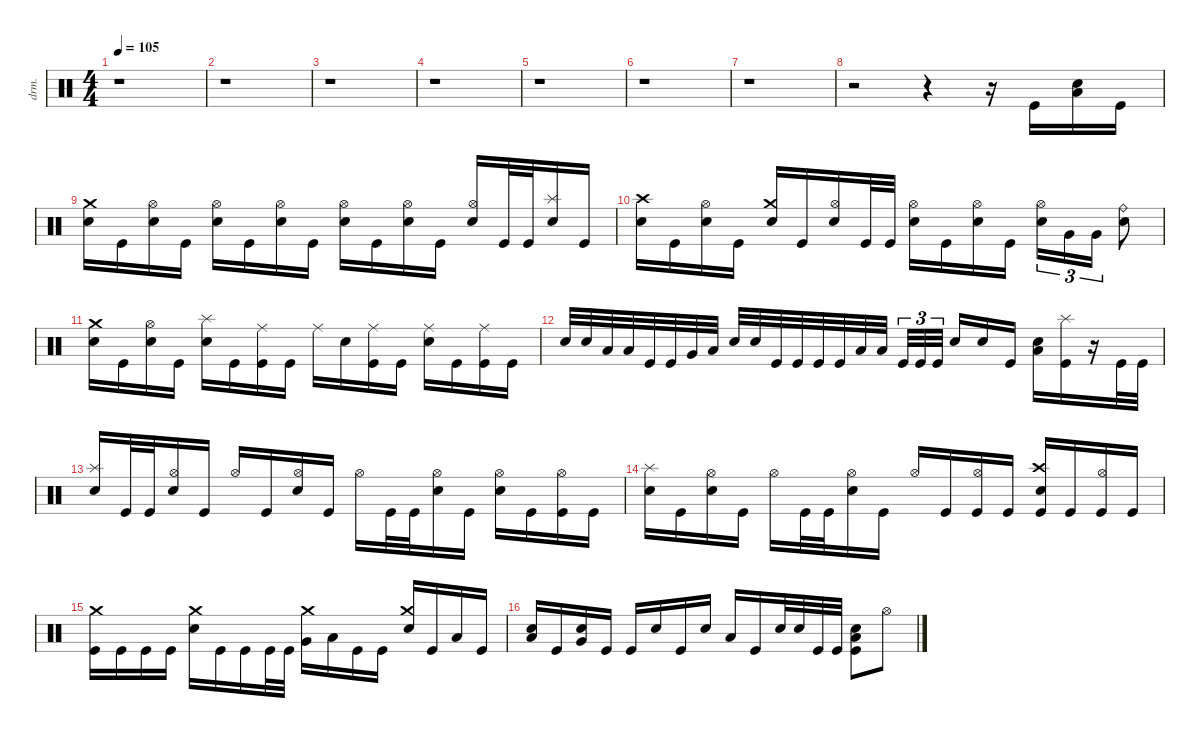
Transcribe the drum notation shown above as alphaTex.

\defaultSystemsLayout 4
\hideDynamics
\bracketExtendMode nobrackets
\otherSystemsTrackNameOrientation horizontal
\track ("Drumkit" "drm.") {instrument percussion}
\staff {score}
\articulation defaults
\ts (4 4)
\tempo 105
\clef neutral
\ks c
r.1{dy mf beam Down} |
r.1{beam Down} |
r.1{beam Down} |
r.1{beam Down} |
r.1{beam Down} |
r.1{beam Down} |
r.1{beam Down} |
r.2{beam Down} r.4{beam Down} r.16{beam Down} "Kick (hit)".16{beam Up} ("Electric Snare (hit)" "Low Floor Tom (hit)").16{beam Up} "Kick (hit)".16{beam Up} |
("Crash medium (hit)" "Electric Snare (hit)").16{beam Down} "Kick (hit)".16{beam Down} ("Hi-Hat (open)" "Electric Snare (hit)").16{beam Down} "Kick (hit)".16{beam Down} ("Hi-Hat (open)" "Electric Snare (hit)").16{beam Down} "Kick (hit)".16{beam Down} ("Hi-Hat (open)" "Electric Snare (hit)").16{beam Down} "Kick (hit)".16{beam Down} ("Hi-Hat (open)" "Electric Snare (hit)").16{beam Down} "Kick (hit)".16{beam Down} ("Hi-Hat (open)" "Electric Snare (hit)").16{beam Down} "Kick (hit)".16{beam Down} ("Electric Snare (hit)" "Hi-Hat (open)").16{beam Up} "Kick (hit)".32{beam Up} "Kick (hit)".32{beam Up} ("Splash (hit)" "Electric Snare (hit)").16{beam Up} "Kick (hit)".16{beam Up} |
("Crash high (hit)" "Electric Snare (hit)").16{beam Down} "Kick (hit)".16{beam Down} ("Hi-Hat (open)" "Electric Snare (hit)").16{beam Down} "Kick (hit)".16{beam Down} ("Crash medium (hit)" "Electric Snare (hit)").16{beam Up} "Kick (hit)".16{beam Up} ("Hi-Hat (open)" "Electric Snare (hit)").16{beam Up} "Kick (hit)".32{beam Up} "Kick (hit)".32{beam Up} ("Hi-Hat (open)" "Electric Snare (hit)").16{beam Down} "Kick (hit)".16{beam Down} ("Hi-Hat (open)" "Electric Snare (hit)").16{beam Down} "Kick (hit)".16{beam Down} ("Hi-Hat (open)" "Electric Snare (hit)").16{tu (3 2) beam Down} "Very Low Tom (hit)".16{tu (3 2) beam Down} "Very Low Tom (hit)".16{tu (3 2) beam Down} ("Ride (bell)" "Electric Snare (hit)").8{beam Down} |
("Crash medium (hit)" "Electric Snare (hit)").16{beam Down} "Kick (hit)".16{beam Down} ("Hi-Hat (open)" "Electric Snare (hit)").16{beam Down} "Kick (hit)".16{beam Down} ("Splash (hit)" "Electric Snare (hit)").16{beam Down} "Kick (hit)".16{beam Down} ("Kick (hit)" "Ride (middle)").16{beam Down} "Kick (hit)".16{beam Down} "Ride (middle)".16{beam Down} "Electric Snare (hit)".16{beam Down} ("Kick (hit)" "Ride (middle)").16{beam Down} "Kick (hit)".16{beam Down} ("Electric Snare (hit)" "Ride (middle)").16{beam Down} "Kick (hit)".16{beam Down} ("Kick (hit)" "Ride (middle)").16{beam Down} "Kick (hit)".16{beam Down} |
"Electric Snare (hit)".32{beam Up} "Electric Snare (hit)".32{beam Up} "Low Tom (hit)".32{beam Up} "Low Tom (hit)".32{beam Up} "Kick (hit)".32{beam Up} "Kick (hit)".32{beam Up} "Very Low Tom (hit)".32{beam Up} "Low Floor Tom (hit)".32{beam Up} "Electric Snare (hit)".32{beam Up} "Electric Snare (hit)".32{beam Up} "Kick (hit)".32{beam Up} "Kick (hit)".32{beam Up} "Kick (hit)".32{beam Up} "Kick (hit)".32{beam Up} "Low Tom (hit)".32{beam Up} "Low Tom (hit)".32{beam Up} "Kick (hit)".32{tu (3 2) beam Up} "Kick (hit)".32{tu (3 2) beam Up} "Kick (hit)".32{tu (3 2) beam Up} "Electric Snare (hit)".16{beam Up} "Electric Snare (hit)".16{beam Up} "Kick (hit)".16{beam Up} ("Electric Snare (hit)" "Low Floor Tom (hit)").16{beam Down} ("Kick (hit)" "Splash (hit)").16{beam Down} r.16{beam Down} "Kick (hit)".32{beam Down} "Kick (hit)".32{beam Down} |
("Splash (hit)" "Electric Snare (hit)").16{beam Up} "Kick (hit)".32{beam Up} "Kick (hit)".32{beam Up} ("Hi-Hat (open)" "Electric Snare (hit)").16{beam Up} "Kick (hit)".16{beam Up} "Hi-Hat (open)".16{beam Up} "Kick (hit)".16{beam Up} ("Electric Snare (hit)" "Hi-Hat (open)").16{beam Up} "Kick (hit)".16{beam Up} "Hi-Hat (open)".16{beam Down} "Kick (hit)".32{beam Down} "Kick (hit)".32{beam Down} ("Electric Snare (hit)" "Hi-Hat (open)").16{beam Down} "Kick (hit)".16{beam Down} ("Electric Snare (hit)" "Hi-Hat (open)").16{beam Down} "Kick (hit)".16{beam Down} ("Kick (hit)" "Hi-Hat (open)").16{beam Down} "Kick (hit)".16{beam Down} |
("Electric Snare (hit)" "Splash (hit)").16{beam Down} "Kick (hit)".16{beam Down} ("Electric Snare (hit)" "Hi-Hat (open)").16{beam Down} "Kick (hit)".16{beam Down} "Hi-Hat (open)".16{beam Down} "Kick (hit)".32{beam Down} "Kick (hit)".32{beam Down} ("Electric Snare (hit)" "Hi-Hat (open)").16{beam Down} "Kick (hit)".16{beam Down} "Hi-Hat (open)".16{beam Up} "Kick (hit)".16{beam Up} ("Kick (hit)" "Hi-Hat (open)").16{beam Up} "Kick (hit)".16{beam Up} ("Electric Snare (hit)" "Crash high (hit)" "Kick (hit)").16{beam Up} "Kick (hit)".16{beam Up} ("Hi-Hat (open)" "Kick (hit)").16{beam Up} "Kick (hit)".16{beam Up} |
("Crash medium (hit)" "Kick (hit)").16{beam Down} "Kick (hit)".16{beam Down} "Kick (hit)".16{beam Down} "Kick (hit)".16{beam Down} ("Crash medium (hit)" "Electric Snare (hit)").16{beam Down} "Kick (hit)".16{beam Down} "Kick (hit)".16{beam Down} "Kick (hit)".32{beam Down} "Kick (hit)".32{beam Down} ("Very Low Tom (hit)" "Crash medium (hit)").16{beam Down} "Low Tom (hit)".16{beam Down} "Kick (hit)".16{beam Down} "Kick (hit)".16{beam Down} ("Crash medium (hit)" "Electric Snare (hit)").16{beam Up} "Kick (hit)".16{beam Up} "Low Floor Tom (hit)".16{beam Up} "Kick (hit)".16{beam Up} |
("Electric Snare (hit)" "Low Tom (hit)").16{beam Up} "Kick (hit)".16{beam Up} ("Very Low Tom (hit)" "Electric Snare (hit)").16{beam Up} "Kick (hit)".16{beam Up} "Kick (hit)".16{beam Up} "Electric Snare (hit)".16{beam Up} "Kick (hit)".16{beam Up} "Electric Snare (hit)".16{beam Up} "Low Tom (hit)".16{beam Up} "Kick (hit)".16{beam Up} "Electric Snare (hit)".32{beam Up} "Electric Snare (hit)".32{beam Up} "Kick (hit)".32{beam Up} "Kick (hit)".32{beam Up} ("Electric Snare (hit)" "Low Floor Tom (hit)" "Kick (hit)").8{beam Down} "Hi-Hat (open)".8{beam Down}
